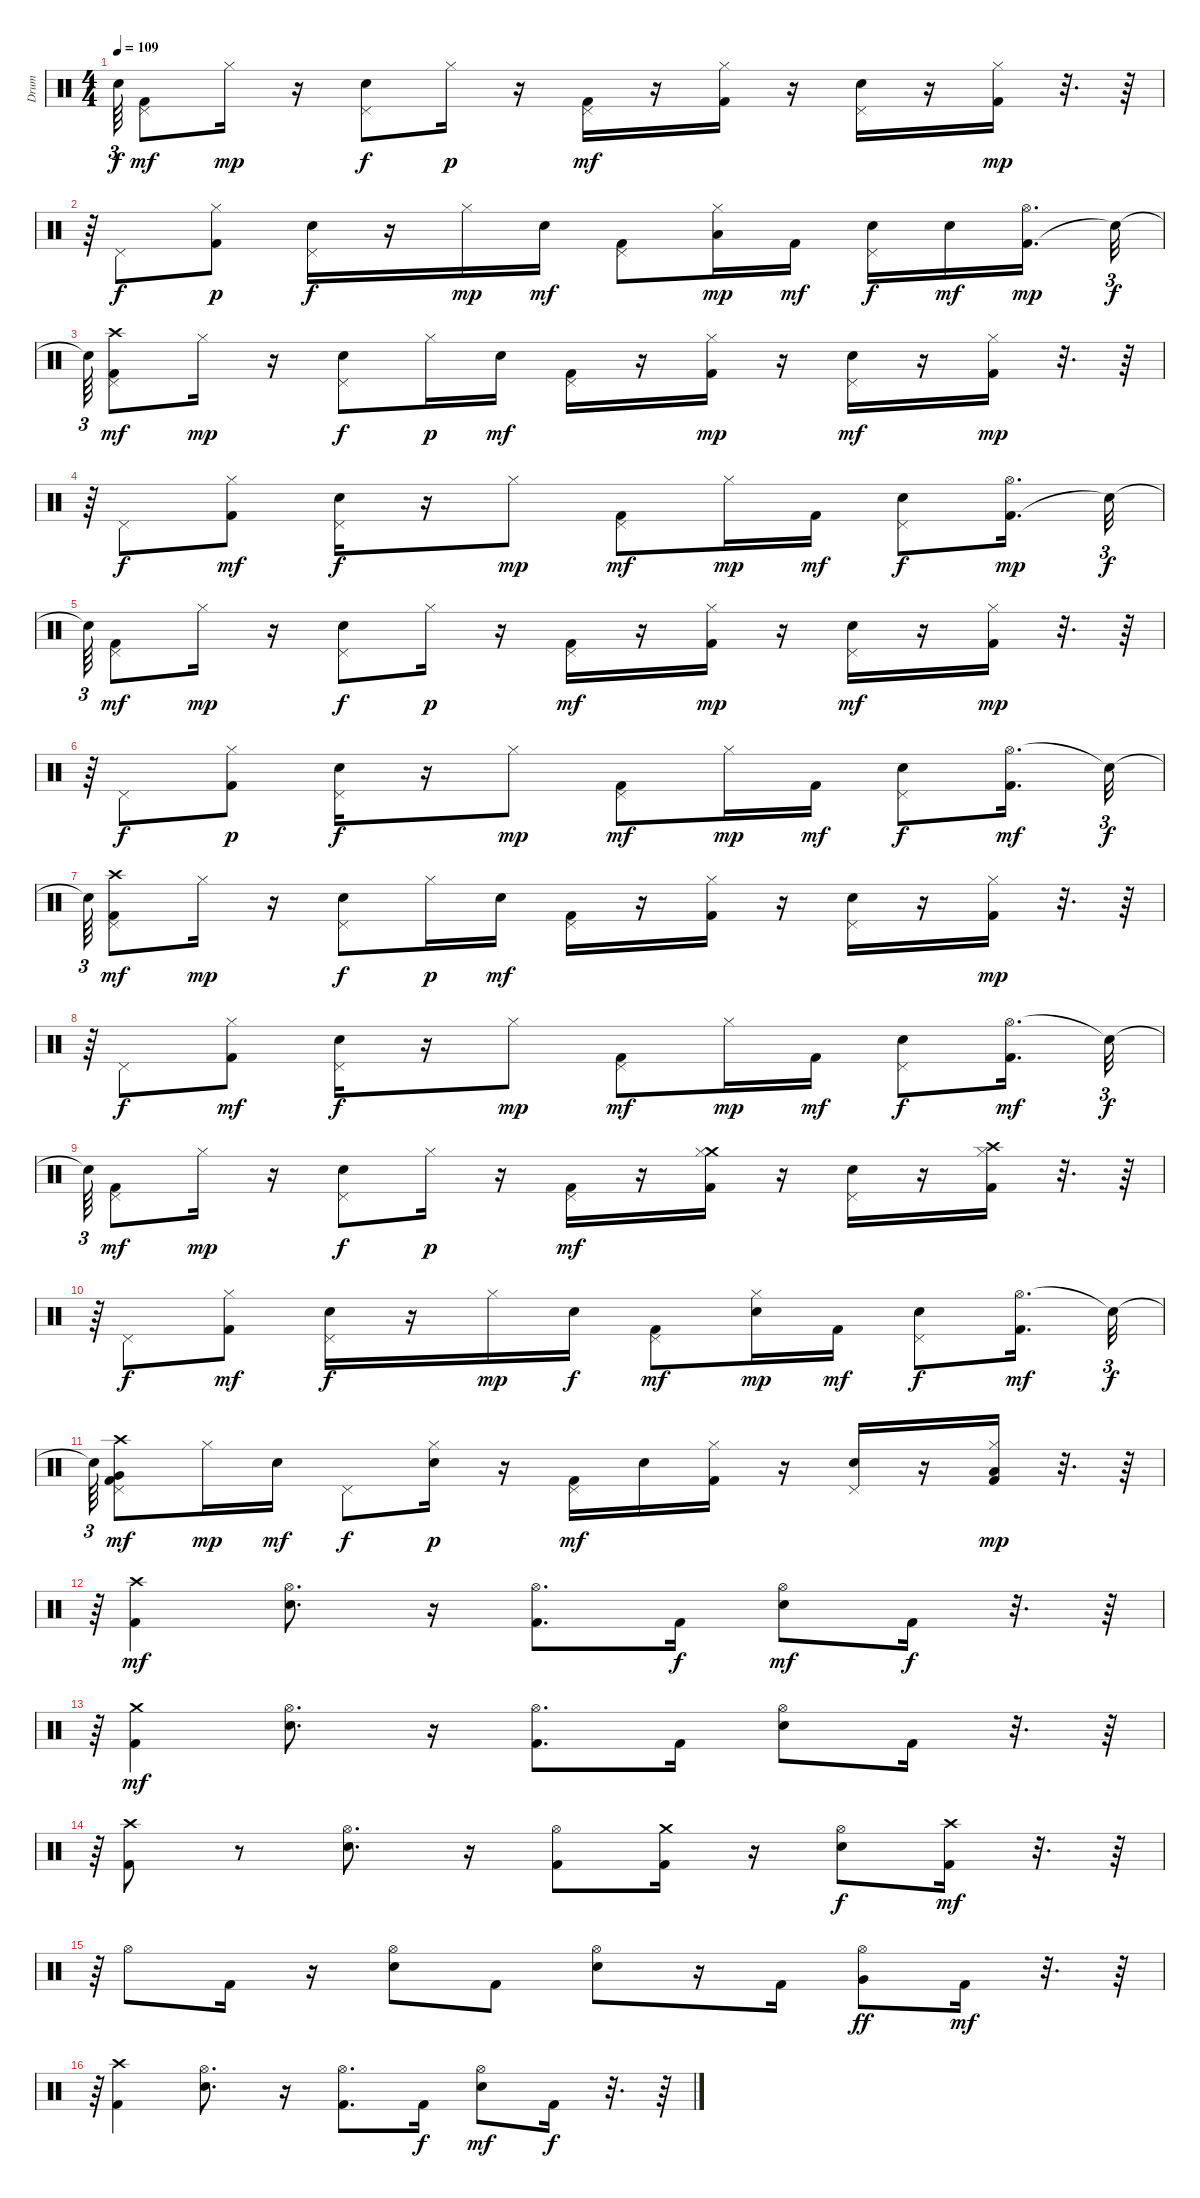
\track ("Drum" "Drum") {instrument percussion}
\staff {score}
\articulation defaults
\ts (4 4)
\tempo 109
\clef neutral
\ks c "Snare (hit)"{t}.64{tu (3 2) dy f}
("Pedal Hi-Hat (hit)" "Kick (hit) 2").8{dy mf} "Hi-Hat (closed)".16{dy mp} r.16 ("Electric Snare (hit)" "Pedal Hi-Hat (hit)").8{dy f} "Hi-Hat (closed)".16{dy p} r.16 ("Kick (hit) 2" "Pedal Hi-Hat (hit)").16{dy mf} r.16 ("Hi-Hat (closed)" "Kick (hit) 2").16 r.16 ("Pedal Hi-Hat (hit)" "Electric Snare (hit)").16 r.16 ("Hi-Hat (closed)" "Kick (hit) 2").16{dy mp} r.32{d} r.64 |
r.64{tu (3 2)} "Pedal Hi-Hat (hit)".8{dy f} ("Kick (hit) 2" "Hi-Hat (closed)").8{dy p} ("Electric Snare (hit)" "Pedal Hi-Hat (hit)").16{dy f} r.16 "Hi-Hat (closed)".16{dy mp} "Electric Snare (hit)".16{dy mf} ("Pedal Hi-Hat (hit)" "Kick (hit) 2").8 ("Hi-Hat (closed)" "Low Tom (hit)").16{dy mp} "Kick (hit) 2".16{dy mf} ("Pedal Hi-Hat (hit)" "Electric Snare (hit)").16{dy f} "Electric Snare (hit)".16{dy mf} ("Kick (hit) 2" "Hi-Hat (open)").16{d dy mp beam splitsecondary} "Snare (hit)"{t}.32{tu (3 2) dy f} |
"Snare (hit)"{t}.64{tu (3 2)} ("Pedal Hi-Hat (hit)" "Crash high (hit)" "Kick (hit) 2").8{dy mf} "Hi-Hat (closed)".16{dy mp} r.16 ("Pedal Hi-Hat (hit)" "Electric Snare (hit)").8{dy f} "Hi-Hat (closed)".16{dy p} "Electric Snare (hit)".16{dy mf} ("Pedal Hi-Hat (hit)" "Kick (hit) 2").16 r.16 ("Kick (hit) 2" "Hi-Hat (closed)").16{dy mp} r.16 ("Electric Snare (hit)" "Pedal Hi-Hat (hit)").16{dy mf} r.16 ("Kick (hit) 2" "Hi-Hat (closed)").16{dy mp} r.32{d} r.64 |
r.64{tu (3 2)} "Pedal Hi-Hat (hit)".8{dy f} ("Hi-Hat (closed)" "Kick (hit) 2").8{dy mf} ("Electric Snare (hit)" "Pedal Hi-Hat (hit)").16{dy f} r.16 "Hi-Hat (closed)".8{dy mp} ("Kick (hit) 2" "Pedal Hi-Hat (hit)").8{dy mf} "Hi-Hat (closed)".16{dy mp} "Kick (hit) 2".16{dy mf} ("Pedal Hi-Hat (hit)" "Electric Snare (hit)").8{dy f} ("Kick (hit) 2" "Hi-Hat (open)").16{d dy mp} "Snare (hit)"{t}.32{tu (3 2) dy f} |
"Snare (hit)"{t}.64{tu (3 2)} ("Kick (hit) 2" "Pedal Hi-Hat (hit)").8{dy mf} "Hi-Hat (closed)".16{dy mp} r.16 ("Pedal Hi-Hat (hit)" "Electric Snare (hit)").8{dy f} "Hi-Hat (closed)".16{dy p} r.16 ("Pedal Hi-Hat (hit)" "Kick (hit) 2").16{dy mf} r.16 ("Kick (hit) 2" "Hi-Hat (closed)").16{dy mp} r.16 ("Electric Snare (hit)" "Pedal Hi-Hat (hit)").16{dy mf} r.16 ("Kick (hit) 2" "Hi-Hat (closed)").16{dy mp} r.32{d} r.64 |
r.64{tu (3 2)} "Pedal Hi-Hat (hit)".8{dy f} ("Kick (hit) 2" "Hi-Hat (closed)").8{dy p} ("Pedal Hi-Hat (hit)" "Electric Snare (hit)").16{dy f} r.16 "Hi-Hat (closed)".8{dy mp} ("Pedal Hi-Hat (hit)" "Kick (hit) 2").8{dy mf} "Hi-Hat (closed)".16{dy mp} "Kick (hit) 2".16{dy mf} ("Electric Snare (hit)" "Pedal Hi-Hat (hit)").8{dy f} ("Hi-Hat (open)" "Kick (hit) 2").16{d dy mf} "Snare (hit)"{t}.32{tu (3 2) dy f} |
"Snare (hit)"{t}.64{tu (3 2)} ("Kick (hit) 2" "Crash high (hit)" "Pedal Hi-Hat (hit)").8{dy mf} "Hi-Hat (closed)".16{dy mp} r.16 ("Electric Snare (hit)" "Pedal Hi-Hat (hit)").8{dy f} "Hi-Hat (closed)".16{dy p} "Electric Snare (hit)".16{dy mf} ("Pedal Hi-Hat (hit)" "Kick (hit) 2").16 r.16 ("Hi-Hat (closed)" "Kick (hit) 2").16 r.16 ("Pedal Hi-Hat (hit)" "Electric Snare (hit)").16 r.16 ("Hi-Hat (closed)" "Kick (hit) 2").16{dy mp} r.32{d} r.64 |
r.64{tu (3 2)} "Pedal Hi-Hat (hit)".8{dy f} ("Hi-Hat (closed)" "Kick (hit) 2").8{dy mf} ("Electric Snare (hit)" "Pedal Hi-Hat (hit)").16{dy f} r.16 "Hi-Hat (closed)".8{dy mp} ("Pedal Hi-Hat (hit)" "Kick (hit) 2").8{dy mf} "Hi-Hat (closed)".16{dy mp} "Kick (hit) 2".16{dy mf} ("Electric Snare (hit)" "Pedal Hi-Hat (hit)").8{dy f} ("Hi-Hat (open)" "Kick (hit) 2").16{d dy mf} "Snare (hit)"{t}.32{tu (3 2) dy f} |
"Snare (hit)"{t}.64{tu (3 2)} ("Pedal Hi-Hat (hit)" "Kick (hit) 2").8{dy mf} "Hi-Hat (closed)".16{dy mp} r.16 ("Electric Snare (hit)" "Pedal Hi-Hat (hit)").8{dy f} "Hi-Hat (closed)".16{dy p} r.16 ("Pedal Hi-Hat (hit)" "Kick (hit) 2").16{dy mf} r.16 ("Crash medium (hit)" "Hi-Hat (closed)" "Kick (hit) 2").16 r.16 ("Pedal Hi-Hat (hit)" "Electric Snare (hit)").16 r.16 ("Hi-Hat (closed)" "Crash high (hit)" "Kick (hit) 2").16 r.32{d} r.64 |
r.64{tu (3 2)} "Pedal Hi-Hat (hit)".8{dy f} ("Hi-Hat (closed)" "Kick (hit) 2").8{dy mf} ("Pedal Hi-Hat (hit)" "Electric Snare (hit)").16{dy f} r.16 "Hi-Hat (closed)".16{dy mp} "Electric Snare (hit)".16{dy f} ("Pedal Hi-Hat (hit)" "Kick (hit) 2").8{dy mf} ("Hi-Hat (closed)" "Electric Snare (hit)").16{dy mp} "Kick (hit) 2".16{dy mf} ("Pedal Hi-Hat (hit)" "Electric Snare (hit)").8{dy f} ("Hi-Hat (open)" "Kick (hit) 2").16{d dy mf} "Snare (hit)"{t}.32{tu (3 2) dy f} |
"Snare (hit)"{t}.64{tu (3 2)} ("Very Low Tom (hit)" "Kick (hit) 2" "Pedal Hi-Hat (hit)" "Crash high (hit)").8{dy mf} "Hi-Hat (closed)".16{dy mp} "Electric Snare (hit)".16{dy mf} "Pedal Hi-Hat (hit)".8{dy f} ("Electric Snare (hit)" "Hi-Hat (closed)").16{dy p} r.16 ("Kick (hit) 2" "Pedal Hi-Hat (hit)").16{dy mf} "Electric Snare (hit)".16 ("Hi-Hat (closed)" "Kick (hit) 2").16 r.16 ("Electric Snare (hit)" "Pedal Hi-Hat (hit)").16 r.16 ("Low Tom (hit)" "Hi-Hat (closed)" "Kick (hit) 2").16{dy mp} r.32{d} r.64 |
r.64{tu (3 2)} ("Crash high (hit)" "Kick (hit) 2").4{dy mf} ("Hi-Hat (open)" "Electric Snare (hit)").8{d} r.16 ("Kick (hit) 2" "Hi-Hat (open)").8{d} "Kick (hit) 2".16{dy f} ("Electric Snare (hit)" "Hi-Hat (open)").8{dy mf} "Kick (hit) 2".16{dy f} r.32{d} r.64 |
r.64{tu (3 2)} ("Kick (hit) 2" "Crash medium (hit)").4{dy mf} ("Hi-Hat (open)" "Electric Snare (hit)").8{d} r.16 ("Hi-Hat (open)" "Kick (hit) 2").8{d} "Kick (hit) 2".16 ("Hi-Hat (open)" "Electric Snare (hit)").8 "Kick (hit) 2".16 r.32{d} r.64 |
r.64{tu (3 2)} ("Kick (hit) 2" "Crash high (hit)").8 r.8 ("Hi-Hat (open)" "Electric Snare (hit)").8{d} r.16 ("Kick (hit) 2" "Hi-Hat (open)").8 ("Kick (hit) 2" "Crash medium (hit)").16 r.16 ("Hi-Hat (open)" "Electric Snare (hit)").8{dy f} ("Kick (hit) 2" "Crash high (hit)").16{dy mf} r.32{d} r.64 |
r.64{tu (3 2)} "Hi-Hat (open)".8 "Kick (hit) 2".16 r.16 ("Hi-Hat (open)" "Electric Snare (hit)").8 "Kick (hit) 2".8 ("Electric Snare (hit)" "Hi-Hat (open)").8 r.16 "Kick (hit) 2".16 ("Hi-Hat (open)" "Very Low Tom (hit)").8{dy ff} "Kick (hit) 2".16{dy mf} r.32{d} r.64 |
r.64{tu (3 2)} ("Crash high (hit)" "Kick (hit) 2").4 ("Electric Snare (hit)" "Hi-Hat (open)").8{d} r.16 ("Hi-Hat (open)" "Kick (hit) 2").8{d} "Kick (hit) 2".16{dy f} ("Electric Snare (hit)" "Hi-Hat (open)").8{dy mf} "Kick (hit) 2".16{dy f} r.32{d} r.64
